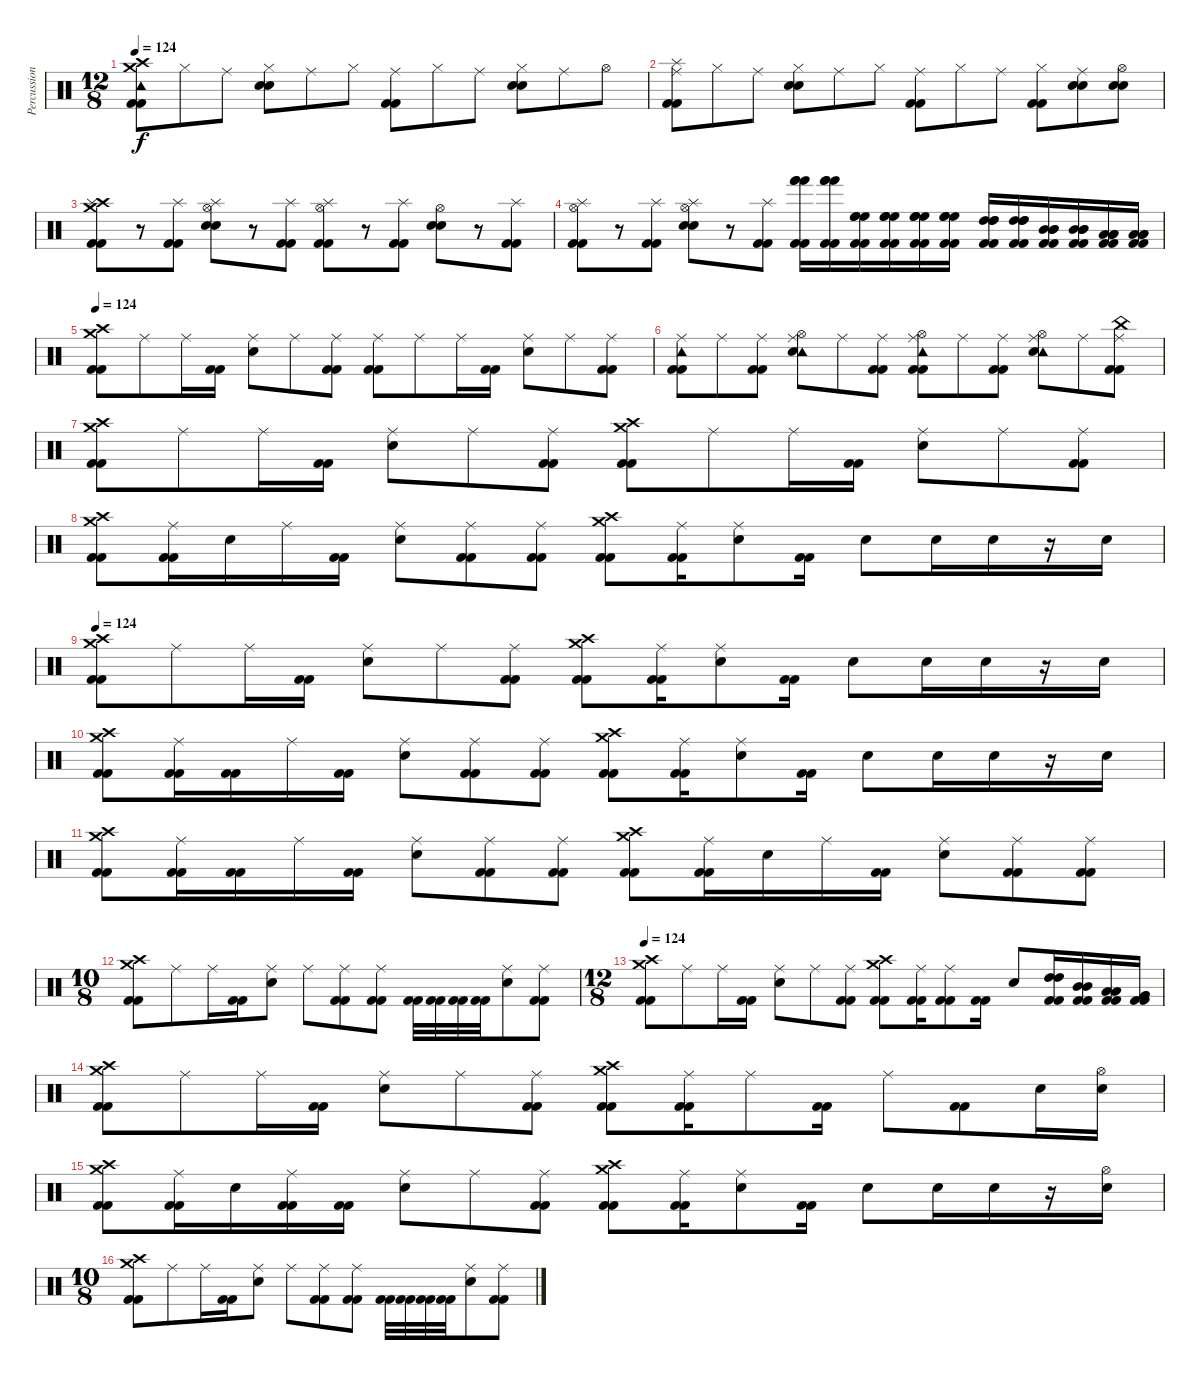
\track ("Percussioni" "Percussion") {instrument percussion}
\staff {score}
\articulation defaults
\ts (12 8)
\tempo 124
\clef neutral
\ks c
("Crash high (hit)" "Crash medium (hit)" "Tambourine (hit)" "Kick (hit) 2" "Kick (hit) 2").8{dy f} "Hi-Hat (closed)".8 "Ride (middle)".8 ("Hi-Hat (closed)" "Snare (hit) 2" "Electric Snare (hit)").8 "Ride (middle)".8 "Hi-Hat (closed)".8 ("Ride (middle)" "Kick (hit) 2" "Kick (hit) 2").8 "Hi-Hat (closed)".8 "Ride (middle)".8 ("Hi-Hat (closed)" "Snare (hit) 2" "Electric Snare (hit)").8 "Ride (middle)".8 "Hi-Hat (open)".8 |
("Ride (middle)" "Splash (hit)" "Kick (hit) 2" "Kick (hit) 2").8 "Hi-Hat (closed)".8 "Ride (middle)".8 ("Hi-Hat (closed)" "Snare (hit) 2" "Electric Snare (hit)").8 "Ride (middle)".8 "Hi-Hat (closed)".8 ("Ride (middle)" "Kick (hit) 2" "Kick (hit) 2").8 "Hi-Hat (closed)".8 "Ride (middle)".8 ("Hi-Hat (closed)" "Kick (hit) 2" "Kick (hit) 2").8 ("Ride (middle)" "Snare (hit) 2" "Electric Snare (hit)").8 ("Hi-Hat (open)" "Snare (hit) 2" "Electric Snare (hit)").8 |
("Crash high (hit)" "Crash medium (hit)" "Splash (hit)" "Kick (hit) 2" "Kick (hit) 2").8 r.8 ("Splash (hit)" "Kick (hit) 2" "Kick (hit) 2").8 ("Hi-Hat (open)" "Snare (hit) 2" "Electric Snare (hit)" "Splash (hit)").8 r.8 ("Splash (hit)" "Kick (hit) 2" "Kick (hit) 2").8 ("Hi-Hat (open)" "Splash (hit)" "Kick (hit) 2" "Kick (hit) 2").8 r.8 ("Splash (hit)" "Kick (hit) 2" "Kick (hit) 2").8 ("Hi-Hat (open)" "Snare (hit) 2" "Electric Snare (hit)").8 r.8 ("Splash (hit)" "Kick (hit) 2" "Kick (hit) 2").8 |
("Hi-Hat (open)" "Splash (hit)" "Kick (hit) 2" "Kick (hit) 2").8 r.8 ("Splash (hit)" "Kick (hit) 2" "Kick (hit) 2").8 ("Hi-Hat (open)" "Snare (hit) 2" "Electric Snare (hit)" "Splash (hit)").8 r.8 ("Splash (hit)" "Kick (hit) 2" "Kick (hit) 2").8 ("Hand (hit)" "Hand (hit)" "Hand (hit)" "Kick (hit) 2" "Kick (hit) 2").16 ("Hand (hit)" "Hand (hit)" "Hand (hit)" "Kick (hit) 2" "Kick (hit) 2").16 ("High Floor Tom (hit)" "High Floor Tom (hit)" "High Floor Tom (hit)" "Kick (hit) 2" "Kick (hit) 2").16 ("High Floor Tom (hit)" "High Floor Tom (hit)" "High Floor Tom (hit)" "Kick (hit) 2" "Kick (hit) 2").16 ("High Floor Tom (hit)" "High Floor Tom (hit)" "High Floor Tom (hit)" "Kick (hit) 2" "Kick (hit) 2").16 ("High Floor Tom (hit)" "High Floor Tom (hit)" "High Floor Tom (hit)" "Kick (hit) 2" "Kick (hit) 2").16 ("High Tom (hit)" "High Tom (hit)" "High Tom (hit)" "Kick (hit) 2" "Kick (hit) 2").16 ("High Tom (hit)" "High Tom (hit)" "High Tom (hit)" "Kick (hit) 2" "Kick (hit) 2").16 ("Mid Tom (hit)" "Mid Tom (hit)" "Mid Tom (hit)" "Kick (hit) 2" "Kick (hit) 2").16 ("Mid Tom (hit)" "Mid Tom (hit)" "Mid Tom (hit)" "Kick (hit) 2" "Kick (hit) 2").16 ("Low Tom (hit)" "Low Tom (hit)" "Low Tom (hit)" "Kick (hit) 2" "Kick (hit) 2").16 ("Low Tom (hit)" "Low Tom (hit)" "Low Tom (hit)" "Kick (hit) 2" "Kick (hit) 2").16 |
\tempo 124
("Crash medium (hit)" "Crash high (hit)" "Kick (hit) 2" "Kick (hit) 2").8 "Ride (middle)".8 "Ride (middle)".16 ("Kick (hit) 2" "Kick (hit) 2").16 ("Ride (middle)" "Snare (hit) 2").8 "Ride (middle)".8 ("Ride (middle)" "Kick (hit) 2" "Kick (hit) 2").8 ("Ride (middle)" "Kick (hit) 2" "Kick (hit) 2").8 "Ride (middle)".8 "Ride (middle)".16 ("Kick (hit) 2" "Kick (hit) 2").16 ("Ride (middle)" "Snare (hit) 2").8 "Ride (middle)".8 ("Ride (middle)" "Kick (hit) 2" "Kick (hit) 2").8 |
("Ride (middle)" "Tambourine (hit)" "Kick (hit) 2" "Kick (hit) 2").8 "Ride (middle)".8 ("Ride (middle)" "Kick (hit) 2" "Kick (hit) 2").8 ("Ride (middle)" "Hi-Hat (open)" "Tambourine (hit)" "Snare (hit) 2").8 "Ride (middle)".8 ("Ride (middle)" "Kick (hit) 2" "Kick (hit) 2").8 ("Ride (middle)" "Hi-Hat (open)" "Tambourine (hit)" "Kick (hit) 2" "Kick (hit) 2").8 "Ride (middle)".8 ("Ride (middle)" "Kick (hit) 2" "Kick (hit) 2").8 ("Ride (middle)" "Hi-Hat (open)" "Tambourine (hit)" "Snare (hit) 2").8 "Ride (middle)".8 ("Ride (middle)" "China (hit)" "Kick (hit) 2" "Kick (hit) 2").8 |
("Crash medium (hit)" "Crash high (hit)" "Kick (hit) 2" "Kick (hit) 2").8 "Ride (middle)".8 "Ride (middle)".16 ("Kick (hit) 2" "Kick (hit) 2").16 ("Ride (middle)" "Snare (hit) 2").8 "Ride (middle)".8 ("Ride (middle)" "Kick (hit) 2" "Kick (hit) 2").8 ("Crash medium (hit)" "Crash high (hit)" "Kick (hit) 2" "Kick (hit) 2").8 "Ride (middle)".8 "Ride (middle)".16 ("Kick (hit) 2" "Kick (hit) 2").16 ("Ride (middle)" "Snare (hit) 2").8 "Ride (middle)".8 ("Ride (middle)" "Kick (hit) 2" "Kick (hit) 2").8 |
("Crash medium (hit)" "Crash high (hit)" "Kick (hit) 2" "Kick (hit) 2").8 ("Ride (middle)" "Kick (hit) 2" "Kick (hit) 2").16 "Snare (hit) 2".16 "Ride (middle)".16 ("Kick (hit) 2" "Kick (hit) 2").16 ("Ride (middle)" "Snare (hit) 2").8 ("Ride (middle)" "Kick (hit) 2" "Kick (hit) 2").8 ("Ride (middle)" "Kick (hit) 2" "Kick (hit) 2").8 ("Crash medium (hit)" "Crash high (hit)" "Kick (hit) 2" "Kick (hit) 2").8 ("Ride (middle)" "Kick (hit) 2" "Kick (hit) 2").16 ("Ride (middle)" "Snare (hit) 2").8 ("Kick (hit) 2" "Kick (hit) 2").16 "Snare (hit) 2".8 "Snare (hit) 2".16 "Snare (hit) 2".16 r.16 "Snare (hit) 2".16 |
\tempo 124
("Crash medium (hit)" "Crash high (hit)" "Kick (hit) 2" "Kick (hit) 2").8 "Ride (middle)".8 "Ride (middle)".16 ("Kick (hit) 2" "Kick (hit) 2").16 ("Ride (middle)" "Snare (hit) 2").8 "Ride (middle)".8 ("Ride (middle)" "Kick (hit) 2" "Kick (hit) 2").8 ("Crash medium (hit)" "Crash high (hit)" "Kick (hit) 2" "Kick (hit) 2").8 ("Ride (middle)" "Kick (hit) 2" "Kick (hit) 2").16 ("Ride (middle)" "Snare (hit) 2").8 ("Kick (hit) 2" "Kick (hit) 2").16 "Snare (hit) 2".8 "Snare (hit) 2".16 "Snare (hit) 2".16 r.16 "Snare (hit) 2".16 |
("Crash medium (hit)" "Crash high (hit)" "Kick (hit) 2" "Kick (hit) 2").8 ("Ride (middle)" "Kick (hit) 2" "Kick (hit) 2").16 ("Kick (hit) 2" "Kick (hit) 2").16 "Ride (middle)".16 ("Kick (hit) 2" "Kick (hit) 2").16 ("Ride (middle)" "Snare (hit) 2").8 ("Ride (middle)" "Kick (hit) 2" "Kick (hit) 2").8 ("Ride (middle)" "Kick (hit) 2" "Kick (hit) 2").8 ("Crash medium (hit)" "Crash high (hit)" "Kick (hit) 2" "Kick (hit) 2").8 ("Ride (middle)" "Kick (hit) 2" "Kick (hit) 2").16 ("Ride (middle)" "Snare (hit) 2").8 ("Kick (hit) 2" "Kick (hit) 2").16 "Snare (hit) 2".8 "Snare (hit) 2".16 "Snare (hit) 2".16 r.16 "Snare (hit) 2".16 |
("Crash medium (hit)" "Crash high (hit)" "Kick (hit) 2" "Kick (hit) 2").8 ("Ride (middle)" "Kick (hit) 2" "Kick (hit) 2").16 ("Kick (hit) 2" "Kick (hit) 2").16 "Ride (middle)".16 ("Kick (hit) 2" "Kick (hit) 2").16 ("Ride (middle)" "Snare (hit) 2").8 ("Ride (middle)" "Kick (hit) 2" "Kick (hit) 2").8 ("Ride (middle)" "Kick (hit) 2" "Kick (hit) 2").8 ("Crash medium (hit)" "Crash high (hit)" "Kick (hit) 2" "Kick (hit) 2").8 ("Ride (middle)" "Kick (hit) 2" "Kick (hit) 2").16 "Snare (hit) 2".16 "Ride (middle)".16 ("Kick (hit) 2" "Kick (hit) 2").16 ("Ride (middle)" "Snare (hit) 2").8 ("Ride (middle)" "Kick (hit) 2" "Kick (hit) 2").8 ("Ride (middle)" "Kick (hit) 2" "Kick (hit) 2").8 |
\ts (10 8)
("Crash medium (hit)" "Crash high (hit)" "Kick (hit) 2" "Kick (hit) 2").8 "Ride (middle)".8 "Ride (middle)".16 ("Kick (hit) 2" "Kick (hit) 2").16 ("Ride (middle)" "Snare (hit) 2").8 "Ride (middle)".8 ("Ride (middle)" "Kick (hit) 2" "Kick (hit) 2").8 ("Ride (middle)" "Kick (hit) 2" "Kick (hit) 2").8 ("Kick (hit) 2" "Kick (hit) 2").32 ("Kick (hit) 2" "Kick (hit) 2").32 ("Kick (hit) 2" "Kick (hit) 2").32 ("Kick (hit) 2" "Kick (hit) 2").32 ("Ride (middle)" "Snare (hit) 2").8 ("Ride (middle)" "Kick (hit) 2" "Kick (hit) 2").8 |
\ts (12 8)
\tempo 124
("Crash medium (hit)" "Crash high (hit)" "Kick (hit) 2" "Kick (hit) 2").8 "Ride (middle)".8 "Ride (middle)".16 ("Kick (hit) 2" "Kick (hit) 2").16 ("Ride (middle)" "Snare (hit) 2").8 "Ride (middle)".8 ("Ride (middle)" "Kick (hit) 2" "Kick (hit) 2").8 ("Crash medium (hit)" "Crash high (hit)" "Kick (hit) 2" "Kick (hit) 2").8 ("Ride (middle)" "Kick (hit) 2" "Kick (hit) 2").16 ("Ride (middle)" "Kick (hit) 2" "Kick (hit) 2").8 ("Kick (hit) 2" "Kick (hit) 2").16 "Snare (hit) 2".8 ("High Tom (hit)" "High Tom (hit)" "Kick (hit) 2" "Kick (hit) 2").16 ("Mid Tom (hit)" "Mid Tom (hit)" "Kick (hit) 2" "Kick (hit) 2").16 ("Low Tom (hit)" "Low Tom (hit)" "Kick (hit) 2" "Kick (hit) 2").16 ("Very Low Tom (hit)" "Very Low Tom (hit)" "Kick (hit) 2" "Kick (hit) 2").16 |
("Crash medium (hit)" "Crash high (hit)" "Kick (hit) 2" "Kick (hit) 2").8 "Ride (middle)".8 "Ride (middle)".16 ("Kick (hit) 2" "Kick (hit) 2").16 ("Ride (middle)" "Snare (hit) 2").8 "Ride (middle)".8 ("Ride (middle)" "Kick (hit) 2" "Kick (hit) 2").8 ("Crash medium (hit)" "Crash high (hit)" "Kick (hit) 2" "Kick (hit) 2").8 ("Ride (middle)" "Kick (hit) 2" "Kick (hit) 2").16 "Ride (middle)".8 ("Kick (hit) 2" "Kick (hit) 2").16 "Ride (middle)".8 ("Kick (hit) 2" "Kick (hit) 2").8 "Snare (hit) 2".16 ("Hi-Hat (open)" "Snare (hit) 2").16 |
("Crash medium (hit)" "Crash high (hit)" "Kick (hit) 2" "Kick (hit) 2").8 ("Ride (middle)" "Kick (hit) 2" "Kick (hit) 2").16 "Snare (hit)".16 ("Ride (middle)" "Kick (hit) 2" "Kick (hit) 2").16 ("Kick (hit) 2" "Kick (hit) 2").16 ("Ride (middle)" "Snare (hit) 2").8 "Ride (middle)".8 ("Ride (middle)" "Kick (hit) 2" "Kick (hit) 2").8 ("Crash medium (hit)" "Crash high (hit)" "Kick (hit) 2" "Kick (hit) 2").8 ("Ride (middle)" "Kick (hit) 2" "Kick (hit) 2").16 ("Ride (middle)" "Snare (hit) 2").8 ("Kick (hit) 2" "Kick (hit) 2").16 "Snare (hit) 2".8 "Snare (hit) 2".16 "Snare (hit) 2".16 r.16 ("Hi-Hat (open)" "Snare (hit) 2").16 |
\ts (10 8)
("Crash medium (hit)" "Crash high (hit)" "Kick (hit) 2" "Kick (hit) 2").8 "Ride (middle)".8 "Ride (middle)".16 ("Kick (hit) 2" "Kick (hit) 2").16 ("Ride (middle)" "Snare (hit) 2").8 "Ride (middle)".8 ("Ride (middle)" "Kick (hit) 2" "Kick (hit) 2").8 ("Ride (middle)" "Kick (hit) 2" "Kick (hit) 2").8 ("Kick (hit) 2" "Kick (hit) 2").32 ("Kick (hit) 2" "Kick (hit) 2").32 ("Kick (hit) 2" "Kick (hit) 2").32 ("Kick (hit) 2" "Kick (hit) 2").32 ("Ride (middle)" "Snare (hit) 2").8 ("Ride (middle)" "Kick (hit) 2" "Kick (hit) 2").8
